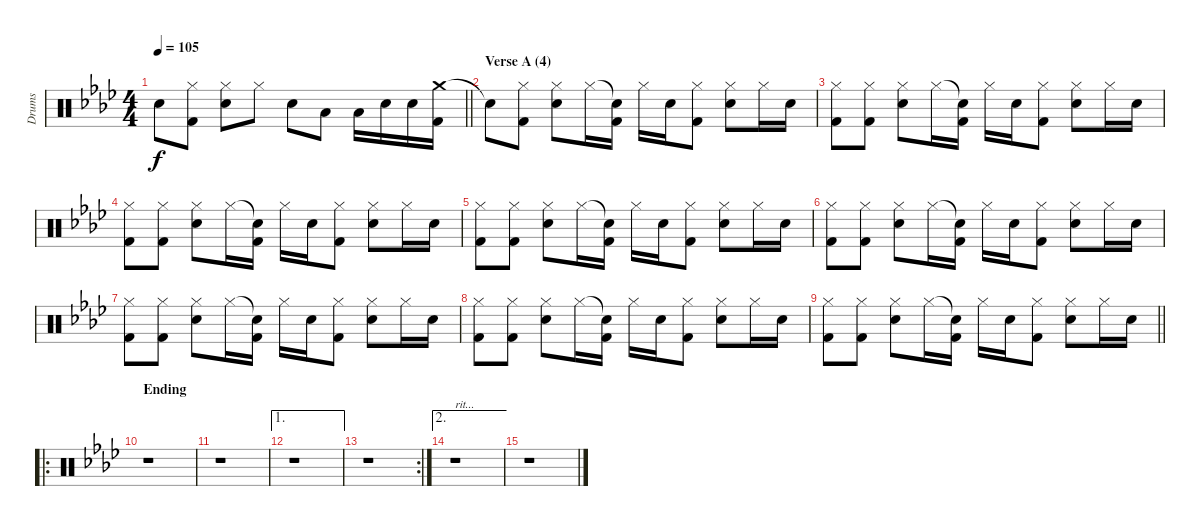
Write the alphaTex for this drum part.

\track ("Drums" "Drums") {instrument percussion}
\staff {score}
\articulation defaults
\ts (4 4)
\tempo 105
\clef neutral
\barLineRight lightlight
\ks fminor "Snare (hit)"{t}.8{dy f}
("Hi-Hat (closed)" "Kick (hit) 2").8 ("Hi-Hat (closed)" "Electric Snare (hit)").8 "Hi-Hat (closed)".8 "Electric Snare (hit)".8 "Low Tom (hit)".8 "Low Floor Tom (hit)".16 "Electric Snare (hit)".16 "Electric Snare (hit)".16 ("Crash medium (hit)" "Kick (hit) 2").16 |
\section ("" "Verse A (4)")
"Snare (hit)"{t}.8 ("Hi-Hat (closed)" "Kick (hit) 2").8 ("Hi-Hat (closed)" "Electric Snare (hit)").8 "Hi-Hat (closed)".16 ("Snare (hit)"{t} "Kick (hit) 2").16 "Hi-Hat (closed)".16 "Electric Snare (hit)".16 ("Hi-Hat (closed)" "Kick (hit) 2").8 ("Hi-Hat (closed)" "Electric Snare (hit)").8 "Hi-Hat (closed)".16 "Electric Snare (hit)".16 |
("Hi-Hat (closed)" "Kick (hit) 2").8 ("Hi-Hat (closed)" "Kick (hit) 2").8 ("Hi-Hat (closed)" "Electric Snare (hit)").8 "Hi-Hat (closed)".16 ("Snare (hit)"{t} "Kick (hit) 2").16 "Hi-Hat (closed)".16 "Electric Snare (hit)".16 ("Hi-Hat (closed)" "Kick (hit) 2").8 ("Hi-Hat (closed)" "Electric Snare (hit)").8 "Hi-Hat (closed)".16 "Electric Snare (hit)".16 |
("Hi-Hat (closed)" "Kick (hit) 2").8 ("Hi-Hat (closed)" "Kick (hit) 2").8 ("Hi-Hat (closed)" "Electric Snare (hit)").8 "Hi-Hat (closed)".16 ("Snare (hit)"{t} "Kick (hit) 2").16 "Hi-Hat (closed)".16 "Electric Snare (hit)".16 ("Hi-Hat (closed)" "Kick (hit) 2").8 ("Hi-Hat (closed)" "Electric Snare (hit)").8 "Hi-Hat (closed)".16 "Electric Snare (hit)".16 |
("Hi-Hat (closed)" "Kick (hit) 2").8 ("Hi-Hat (closed)" "Kick (hit) 2").8 ("Hi-Hat (closed)" "Electric Snare (hit)").8 "Hi-Hat (closed)".16 ("Snare (hit)"{t} "Kick (hit) 2").16 "Hi-Hat (closed)".16 "Electric Snare (hit)".16 ("Hi-Hat (closed)" "Kick (hit) 2").8 ("Hi-Hat (closed)" "Electric Snare (hit)").8 "Hi-Hat (closed)".16 "Electric Snare (hit)".16 |
("Hi-Hat (closed)" "Kick (hit) 2").8 ("Hi-Hat (closed)" "Kick (hit) 2").8 ("Hi-Hat (closed)" "Electric Snare (hit)").8 "Hi-Hat (closed)".16 ("Snare (hit)"{t} "Kick (hit) 2").16 "Hi-Hat (closed)".16 "Electric Snare (hit)".16 ("Hi-Hat (closed)" "Kick (hit) 2").8 ("Hi-Hat (closed)" "Electric Snare (hit)").8 "Hi-Hat (closed)".16 "Electric Snare (hit)".16 |
("Hi-Hat (closed)" "Kick (hit) 2").8 ("Hi-Hat (closed)" "Kick (hit) 2").8 ("Hi-Hat (closed)" "Electric Snare (hit)").8 "Hi-Hat (closed)".16 ("Snare (hit)"{t} "Kick (hit) 2").16 "Hi-Hat (closed)".16 "Electric Snare (hit)".16 ("Hi-Hat (closed)" "Kick (hit) 2").8 ("Hi-Hat (closed)" "Electric Snare (hit)").8 "Hi-Hat (closed)".16 "Electric Snare (hit)".16 |
("Hi-Hat (closed)" "Kick (hit) 2").8 ("Hi-Hat (closed)" "Kick (hit) 2").8 ("Hi-Hat (closed)" "Electric Snare (hit)").8 "Hi-Hat (closed)".16 ("Snare (hit)"{t} "Kick (hit) 2").16 "Hi-Hat (closed)".16 "Electric Snare (hit)".16 ("Hi-Hat (closed)" "Kick (hit) 2").8 ("Hi-Hat (closed)" "Electric Snare (hit)").8 "Hi-Hat (closed)".16 "Electric Snare (hit)".16 |
\barLineRight lightlight
("Hi-Hat (closed)" "Kick (hit) 2").8 ("Hi-Hat (closed)" "Kick (hit) 2").8 ("Hi-Hat (closed)" "Electric Snare (hit)").8 "Hi-Hat (closed)".16 ("Snare (hit)"{t} "Kick (hit) 2").16 "Hi-Hat (closed)".16 "Electric Snare (hit)".16 ("Hi-Hat (closed)" "Kick (hit) 2").8 ("Hi-Hat (closed)" "Electric Snare (hit)").8 "Hi-Hat (closed)".16 "Electric Snare (hit)".16 |
\ro
\section ("" "Ending")
r.1 |
r.1 |
\ae 1
r.1 |
\rc 2
r.1 |
\ae 2
r.1{txt "rit..."} |
r.1
